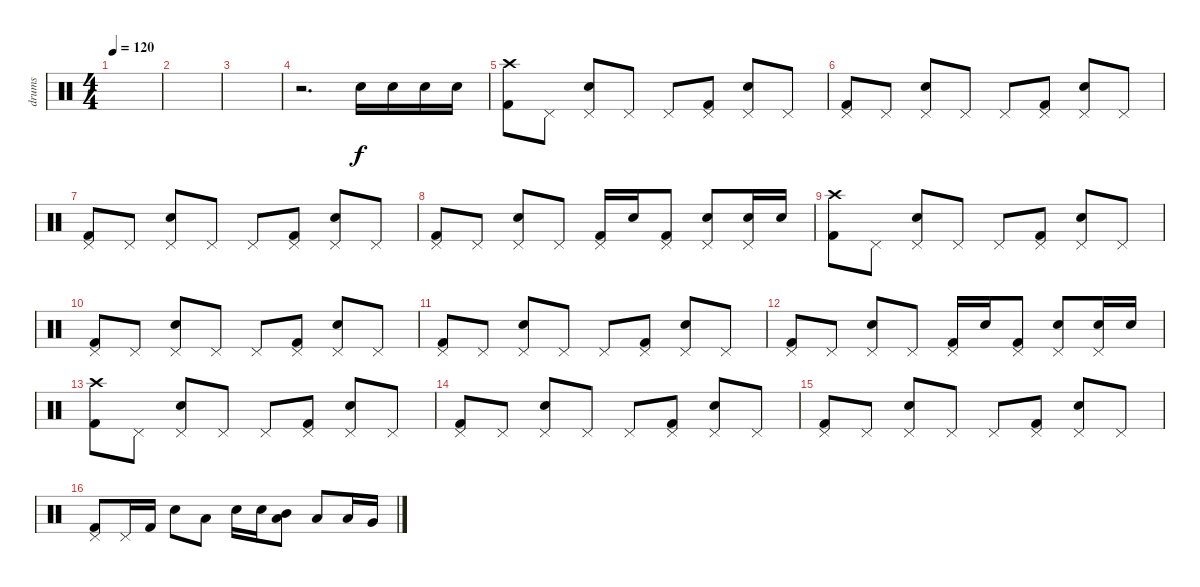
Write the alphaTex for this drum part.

\track ("drums" "drums") {instrument percussion}
\staff {score}
\articulation defaults
\ts (4 4)
\tempo 120
\clef neutral
\ks c
|
|
|
r.2{d} "Electric Snare (hit)".16 "Electric Snare (hit)".16 "Electric Snare (hit)".16 "Electric Snare (hit)".16 |
("Crash high (hit)" "Kick (hit) 2").8 "Pedal Hi-Hat (hit)".8 ("Pedal Hi-Hat (hit)" "Electric Snare (hit)").8 "Pedal Hi-Hat (hit)".8 "Pedal Hi-Hat (hit)".8 ("Pedal Hi-Hat (hit)" "Kick (hit) 2").8 ("Pedal Hi-Hat (hit)" "Electric Snare (hit)").8 "Pedal Hi-Hat (hit)".8 |
("Pedal Hi-Hat (hit)" "Kick (hit) 2").8 "Pedal Hi-Hat (hit)".8 ("Pedal Hi-Hat (hit)" "Electric Snare (hit)").8 "Pedal Hi-Hat (hit)".8 "Pedal Hi-Hat (hit)".8 ("Pedal Hi-Hat (hit)" "Kick (hit) 2").8 ("Pedal Hi-Hat (hit)" "Electric Snare (hit)").8 "Pedal Hi-Hat (hit)".8 |
("Pedal Hi-Hat (hit)" "Kick (hit) 2").8 "Pedal Hi-Hat (hit)".8 ("Pedal Hi-Hat (hit)" "Electric Snare (hit)").8 "Pedal Hi-Hat (hit)".8 "Pedal Hi-Hat (hit)".8 ("Pedal Hi-Hat (hit)" "Kick (hit) 2").8 ("Pedal Hi-Hat (hit)" "Electric Snare (hit)").8 "Pedal Hi-Hat (hit)".8 |
("Pedal Hi-Hat (hit)" "Kick (hit) 2").8 "Pedal Hi-Hat (hit)".8 ("Pedal Hi-Hat (hit)" "Electric Snare (hit)").8 "Pedal Hi-Hat (hit)".8 ("Pedal Hi-Hat (hit)" "Kick (hit) 2").16 "Electric Snare (hit)".16 ("Pedal Hi-Hat (hit)" "Kick (hit) 2").8 ("Pedal Hi-Hat (hit)" "Electric Snare (hit)").8 ("Pedal Hi-Hat (hit)" "Electric Snare (hit)").16 "Electric Snare (hit)".16 |
("Crash high (hit)" "Kick (hit) 2").8 "Pedal Hi-Hat (hit)".8 ("Pedal Hi-Hat (hit)" "Electric Snare (hit)").8 "Pedal Hi-Hat (hit)".8 "Pedal Hi-Hat (hit)".8 ("Pedal Hi-Hat (hit)" "Kick (hit) 2").8 ("Pedal Hi-Hat (hit)" "Electric Snare (hit)").8 "Pedal Hi-Hat (hit)".8 |
("Pedal Hi-Hat (hit)" "Kick (hit) 2").8 "Pedal Hi-Hat (hit)".8 ("Pedal Hi-Hat (hit)" "Electric Snare (hit)").8 "Pedal Hi-Hat (hit)".8 "Pedal Hi-Hat (hit)".8 ("Pedal Hi-Hat (hit)" "Kick (hit) 2").8 ("Pedal Hi-Hat (hit)" "Electric Snare (hit)").8 "Pedal Hi-Hat (hit)".8 |
("Pedal Hi-Hat (hit)" "Kick (hit) 2").8 "Pedal Hi-Hat (hit)".8 ("Pedal Hi-Hat (hit)" "Electric Snare (hit)").8 "Pedal Hi-Hat (hit)".8 "Pedal Hi-Hat (hit)".8 ("Pedal Hi-Hat (hit)" "Kick (hit) 2").8 ("Pedal Hi-Hat (hit)" "Electric Snare (hit)").8 "Pedal Hi-Hat (hit)".8 |
("Pedal Hi-Hat (hit)" "Kick (hit) 2").8 "Pedal Hi-Hat (hit)".8 ("Pedal Hi-Hat (hit)" "Electric Snare (hit)").8 "Pedal Hi-Hat (hit)".8 ("Pedal Hi-Hat (hit)" "Kick (hit) 2").16 "Electric Snare (hit)".16 ("Pedal Hi-Hat (hit)" "Kick (hit) 2").8 ("Pedal Hi-Hat (hit)" "Electric Snare (hit)").8 ("Pedal Hi-Hat (hit)" "Electric Snare (hit)").16 "Electric Snare (hit)".16 |
("Crash high (hit)" "Kick (hit) 2").8 "Pedal Hi-Hat (hit)".8 ("Pedal Hi-Hat (hit)" "Electric Snare (hit)").8 "Pedal Hi-Hat (hit)".8 "Pedal Hi-Hat (hit)".8 ("Pedal Hi-Hat (hit)" "Kick (hit) 2").8 ("Pedal Hi-Hat (hit)" "Electric Snare (hit)").8 "Pedal Hi-Hat (hit)".8 |
("Pedal Hi-Hat (hit)" "Kick (hit) 2").8 "Pedal Hi-Hat (hit)".8 ("Pedal Hi-Hat (hit)" "Electric Snare (hit)").8 "Pedal Hi-Hat (hit)".8 "Pedal Hi-Hat (hit)".8 ("Pedal Hi-Hat (hit)" "Kick (hit) 2").8 ("Pedal Hi-Hat (hit)" "Electric Snare (hit)").8 "Pedal Hi-Hat (hit)".8 |
("Pedal Hi-Hat (hit)" "Kick (hit) 2").8 "Pedal Hi-Hat (hit)".8 ("Pedal Hi-Hat (hit)" "Electric Snare (hit)").8 "Pedal Hi-Hat (hit)".8 "Pedal Hi-Hat (hit)".8 ("Pedal Hi-Hat (hit)" "Kick (hit) 2").8 ("Pedal Hi-Hat (hit)" "Electric Snare (hit)").8 "Pedal Hi-Hat (hit)".8 |
("Pedal Hi-Hat (hit)" "Kick (hit) 2").8 "Pedal Hi-Hat (hit)".16 "Kick (hit) 2".16 "Electric Snare (hit)".8 "Low Tom (hit)".8 "Electric Snare (hit)".16 "Electric Snare (hit)".16 ("Mid Tom (hit)" "Low Tom (hit)").8 "Low Tom (hit)".8 "Low Tom (hit)".16 "Very Low Tom (hit)".16
